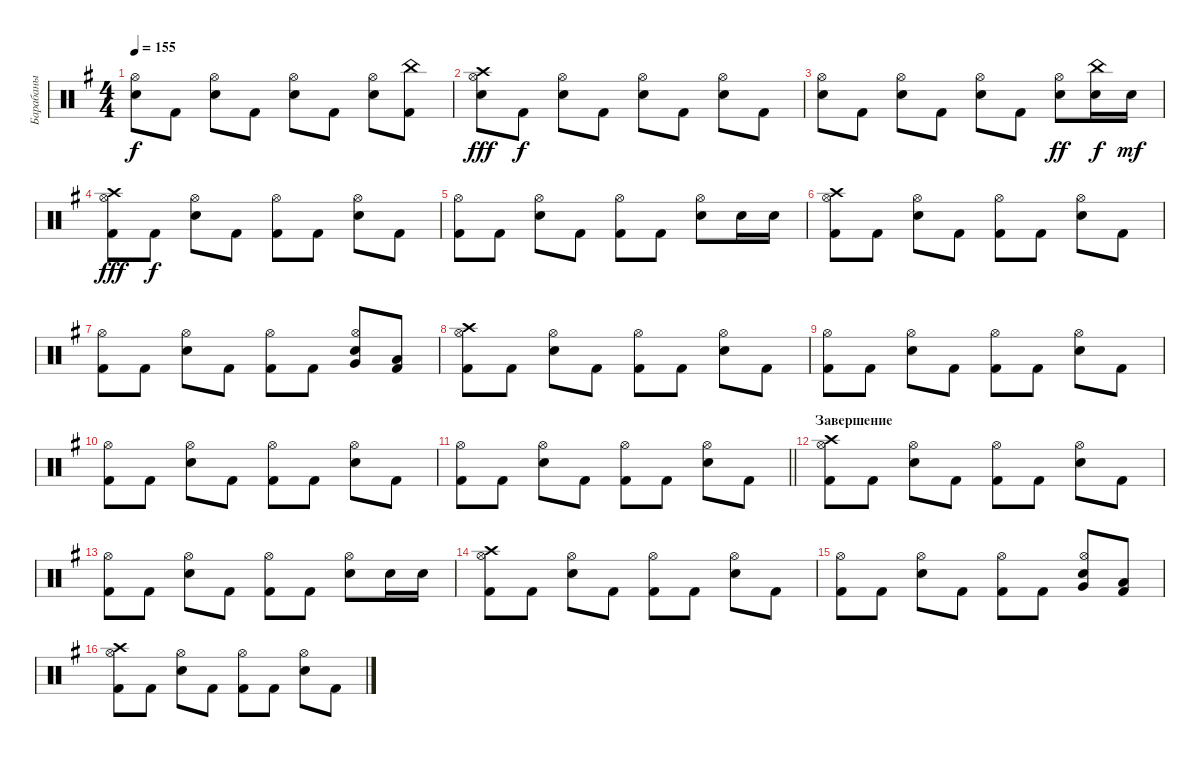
\track ("Барабаны" "Барабаны") {instrument percussion}
\staff {score}
\articulation defaults
\ts (4 4)
\tempo 155
\clef neutral
\ks eminor
("Electric Snare (hit)" "Hi-Hat (open)").8{dy f} "Kick (hit) 2".8 ("Electric Snare (hit)" "Hi-Hat (open)").8 "Kick (hit) 2".8 ("Electric Snare (hit)" "Hi-Hat (open)").8 "Kick (hit) 2".8 ("Electric Snare (hit)" "Hi-Hat (open)").8 ("Kick (hit) 2" "China (hit)").8 |
("Electric Snare (hit)" "Hi-Hat (open)" "Crash high (hit)").8{dy fff} "Kick (hit) 2".8{dy f} ("Electric Snare (hit)" "Hi-Hat (open)").8 "Kick (hit) 2".8 ("Electric Snare (hit)" "Hi-Hat (open)").8 "Kick (hit) 2".8 ("Electric Snare (hit)" "Hi-Hat (open)").8 "Kick (hit) 2".8 |
("Electric Snare (hit)" "Hi-Hat (open)").8 "Kick (hit) 2".8 ("Electric Snare (hit)" "Hi-Hat (open)").8 "Kick (hit) 2".8 ("Electric Snare (hit)" "Hi-Hat (open)").8 "Kick (hit) 2".8 ("Electric Snare (hit)" "Hi-Hat (open)").8{dy ff} ("Electric Snare (hit)" "China (hit)").16{dy f} "Electric Snare (hit)".16{dy mf} |
("Kick (hit) 2" "Hi-Hat (open)" "Crash high (hit)").8{dy fff} "Kick (hit) 2".8{dy f} ("Electric Snare (hit)" "Hi-Hat (open)").8 "Kick (hit) 2".8 ("Kick (hit) 2" "Hi-Hat (open)").8 "Kick (hit) 2".8 ("Electric Snare (hit)" "Hi-Hat (open)").8 "Kick (hit) 2".8 |
("Kick (hit) 2" "Hi-Hat (open)").8 "Kick (hit) 2".8 ("Electric Snare (hit)" "Hi-Hat (open)").8 "Kick (hit) 2".8 ("Kick (hit) 2" "Hi-Hat (open)").8 "Kick (hit) 2".8 ("Electric Snare (hit)" "Hi-Hat (open)").8 "Electric Snare (hit)".16 "Electric Snare (hit)".16 |
("Kick (hit) 2" "Hi-Hat (open)" "Crash high (hit)").8 "Kick (hit) 2".8 ("Electric Snare (hit)" "Hi-Hat (open)").8 "Kick (hit) 2".8 ("Kick (hit) 2" "Hi-Hat (open)").8 "Kick (hit) 2".8 ("Electric Snare (hit)" "Hi-Hat (open)").8 "Kick (hit) 2".8 |
("Kick (hit) 2" "Hi-Hat (open)").8 "Kick (hit) 2".8 ("Electric Snare (hit)" "Hi-Hat (open)").8 "Kick (hit) 2".8 ("Kick (hit) 2" "Hi-Hat (open)").8 "Kick (hit) 2".8 ("Electric Snare (hit)" "Hi-Hat (open)" "Very Low Tom (hit)").8 ("Kick (hit) 2" "Low Floor Tom (hit)").8 |
("Kick (hit) 2" "Hi-Hat (open)" "Crash high (hit)").8 "Kick (hit) 2".8 ("Electric Snare (hit)" "Hi-Hat (open)").8 "Kick (hit) 2".8 ("Kick (hit) 2" "Hi-Hat (open)").8 "Kick (hit) 2".8 ("Electric Snare (hit)" "Hi-Hat (open)").8 "Kick (hit) 2".8 |
("Kick (hit) 2" "Hi-Hat (open)").8 "Kick (hit) 2".8 ("Electric Snare (hit)" "Hi-Hat (open)").8 "Kick (hit) 2".8 ("Kick (hit) 2" "Hi-Hat (open)").8 "Kick (hit) 2".8 ("Electric Snare (hit)" "Hi-Hat (open)").8 "Kick (hit) 2".8 |
("Kick (hit) 2" "Hi-Hat (open)").8 "Kick (hit) 2".8 ("Electric Snare (hit)" "Hi-Hat (open)").8 "Kick (hit) 2".8 ("Kick (hit) 2" "Hi-Hat (open)").8 "Kick (hit) 2".8 ("Electric Snare (hit)" "Hi-Hat (open)").8 "Kick (hit) 2".8 |
\barLineRight lightlight
("Kick (hit) 2" "Hi-Hat (open)").8 "Kick (hit) 2".8 ("Electric Snare (hit)" "Hi-Hat (open)").8 "Kick (hit) 2".8 ("Kick (hit) 2" "Hi-Hat (open)").8 "Kick (hit) 2".8 ("Electric Snare (hit)" "Hi-Hat (open)").8 "Kick (hit) 2".8 |
\section ("" "Завершение")
("Kick (hit) 2" "Hi-Hat (open)" "Crash high (hit)").8{volume 7} "Kick (hit) 2".8 ("Electric Snare (hit)" "Hi-Hat (open)").8 "Kick (hit) 2".8 ("Kick (hit) 2" "Hi-Hat (open)").8 "Kick (hit) 2".8 ("Electric Snare (hit)" "Hi-Hat (open)").8 "Kick (hit) 2".8 |
("Kick (hit) 2" "Hi-Hat (open)").8 "Kick (hit) 2".8 ("Electric Snare (hit)" "Hi-Hat (open)").8 "Kick (hit) 2".8 ("Kick (hit) 2" "Hi-Hat (open)").8 "Kick (hit) 2".8 ("Electric Snare (hit)" "Hi-Hat (open)").8 "Electric Snare (hit)".16 "Electric Snare (hit)".16 |
("Kick (hit) 2" "Hi-Hat (open)" "Crash high (hit)").8 "Kick (hit) 2".8 ("Electric Snare (hit)" "Hi-Hat (open)").8 "Kick (hit) 2".8 ("Kick (hit) 2" "Hi-Hat (open)").8 "Kick (hit) 2".8 ("Electric Snare (hit)" "Hi-Hat (open)").8 "Kick (hit) 2".8 |
("Kick (hit) 2" "Hi-Hat (open)").8 "Kick (hit) 2".8 ("Electric Snare (hit)" "Hi-Hat (open)").8 "Kick (hit) 2".8 ("Kick (hit) 2" "Hi-Hat (open)").8 "Kick (hit) 2".8 ("Electric Snare (hit)" "Hi-Hat (open)" "Very Low Tom (hit)").8 ("Kick (hit) 2" "Low Floor Tom (hit)").8 |
("Kick (hit) 2" "Hi-Hat (open)" "Crash high (hit)").8{volume 0} "Kick (hit) 2".8 ("Electric Snare (hit)" "Hi-Hat (open)").8 "Kick (hit) 2".8 ("Kick (hit) 2" "Hi-Hat (open)").8 "Kick (hit) 2".8 ("Electric Snare (hit)" "Hi-Hat (open)").8 "Kick (hit) 2".8
